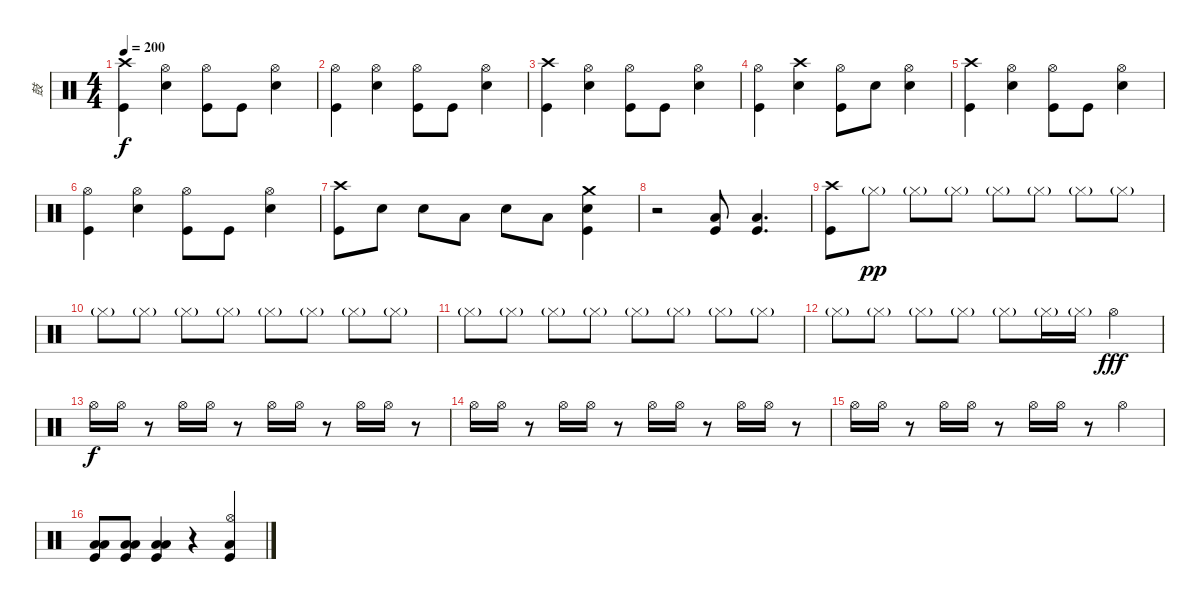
\track ("鼓" "鼓") {instrument percussion}
\staff {score}
\articulation defaults
\ts (4 4)
\tempo 200
\clef neutral
\ks c
("Crash high (hit)" "Kick (hit)").4{dy f} ("Hi-Hat (open)" "Snare (hit) 2").4 ("Hi-Hat (open)" "Kick (hit)").8 "Kick (hit)".8 ("Hi-Hat (open)" "Snare (hit) 2").4 |
("Hi-Hat (open)" "Kick (hit)").4 ("Hi-Hat (open)" "Snare (hit) 2").4 ("Hi-Hat (open)" "Kick (hit)").8 "Kick (hit)".8 ("Hi-Hat (open)" "Snare (hit) 2").4 |
("Crash high (hit)" "Kick (hit)").4 ("Hi-Hat (open)" "Snare (hit) 2").4 ("Hi-Hat (open)" "Kick (hit)").8 "Kick (hit)".8 ("Hi-Hat (open)" "Snare (hit) 2").4 |
("Hi-Hat (open)" "Kick (hit)").4 ("Crash high (hit)" "Snare (hit) 2").4 ("Hi-Hat (open)" "Kick (hit)").8 "Snare (hit) 2".8 ("Hi-Hat (open)" "Snare (hit) 2").4 |
("Crash high (hit)" "Kick (hit)").4 ("Hi-Hat (open)" "Snare (hit) 2").4 ("Hi-Hat (open)" "Kick (hit)").8 "Kick (hit)".8 ("Hi-Hat (open)" "Snare (hit) 2").4 |
("Hi-Hat (open)" "Kick (hit)").4 ("Hi-Hat (open)" "Snare (hit) 2").4 ("Hi-Hat (open)" "Kick (hit)").8 "Kick (hit)".8 ("Hi-Hat (open)" "Snare (hit) 2").4 |
("Crash high (hit)" "Kick (hit)").8 "Snare (hit) 2".8 "Snare (hit) 2".8 "Low Floor Tom (hit)".8 "Snare (hit) 2".8 "Low Tom (hit)".8 ("Crash medium (hit)" "Snare (hit) 2" "Kick (hit)").4 |
r.2 ("Low Tom (hit)" "Kick (hit)").8 ("Low Floor Tom (hit)" "Kick (hit)").4{d} |
("Crash high (hit)" "Kick (hit)").8 "Hi-Hat (closed)"{g}.8{dy pp} "Hi-Hat (closed)"{g}.8 "Hi-Hat (closed)"{g}.8 "Hi-Hat (closed)"{g}.8 "Hi-Hat (closed)"{g}.8 "Hi-Hat (closed)"{g}.8 "Hi-Hat (closed)"{g}.8 |
"Hi-Hat (closed)"{g}.8 "Hi-Hat (closed)"{g}.8 "Hi-Hat (closed)"{g}.8 "Hi-Hat (closed)"{g}.8 "Hi-Hat (closed)"{g}.8 "Hi-Hat (closed)"{g}.8 "Hi-Hat (closed)"{g}.8 "Hi-Hat (closed)"{g}.8 |
"Hi-Hat (closed)"{g}.8 "Hi-Hat (closed)"{g}.8 "Hi-Hat (closed)"{g}.8 "Hi-Hat (closed)"{g}.8 "Hi-Hat (closed)"{g}.8 "Hi-Hat (closed)"{g}.8 "Hi-Hat (closed)"{g}.8 "Hi-Hat (closed)"{g}.8 |
"Hi-Hat (closed)"{g}.8 "Hi-Hat (closed)"{g}.8 "Hi-Hat (closed)"{g}.8 "Hi-Hat (closed)"{g}.8 "Hi-Hat (closed)"{g}.8 "Hi-Hat (closed)"{g}.16 "Hi-Hat (closed)"{g}.16 "Hi-Hat (open)".4{dy fff} |
"Hi-Hat (open)".16{dy f} "Hi-Hat (open)".16 r.8 "Hi-Hat (open)".16 "Hi-Hat (open)".16 r.8 "Hi-Hat (open)".16 "Hi-Hat (open)".16 r.8 "Hi-Hat (open)".16 "Hi-Hat (open)".16 r.8 |
"Hi-Hat (open)".16 "Hi-Hat (open)".16 r.8 "Hi-Hat (open)".16 "Hi-Hat (open)".16 r.8 "Hi-Hat (open)".16 "Hi-Hat (open)".16 r.8 "Hi-Hat (open)".16 "Hi-Hat (open)".16 r.8 |
"Hi-Hat (open)".16 "Hi-Hat (open)".16 r.8 "Hi-Hat (open)".16 "Hi-Hat (open)".16 r.8 "Hi-Hat (open)".16 "Hi-Hat (open)".16 r.8 "Hi-Hat (open)".4 |
("Low Tom (hit)" "Low Floor Tom (hit)" "Kick (hit)").8 ("Low Tom (hit)" "Low Floor Tom (hit)" "Kick (hit)").8 ("Low Tom (hit)" "Low Floor Tom (hit)" "Kick (hit)").4 r.4 ("Hi-Hat (open)" "Low Tom (hit)" "Kick (hit)").4
